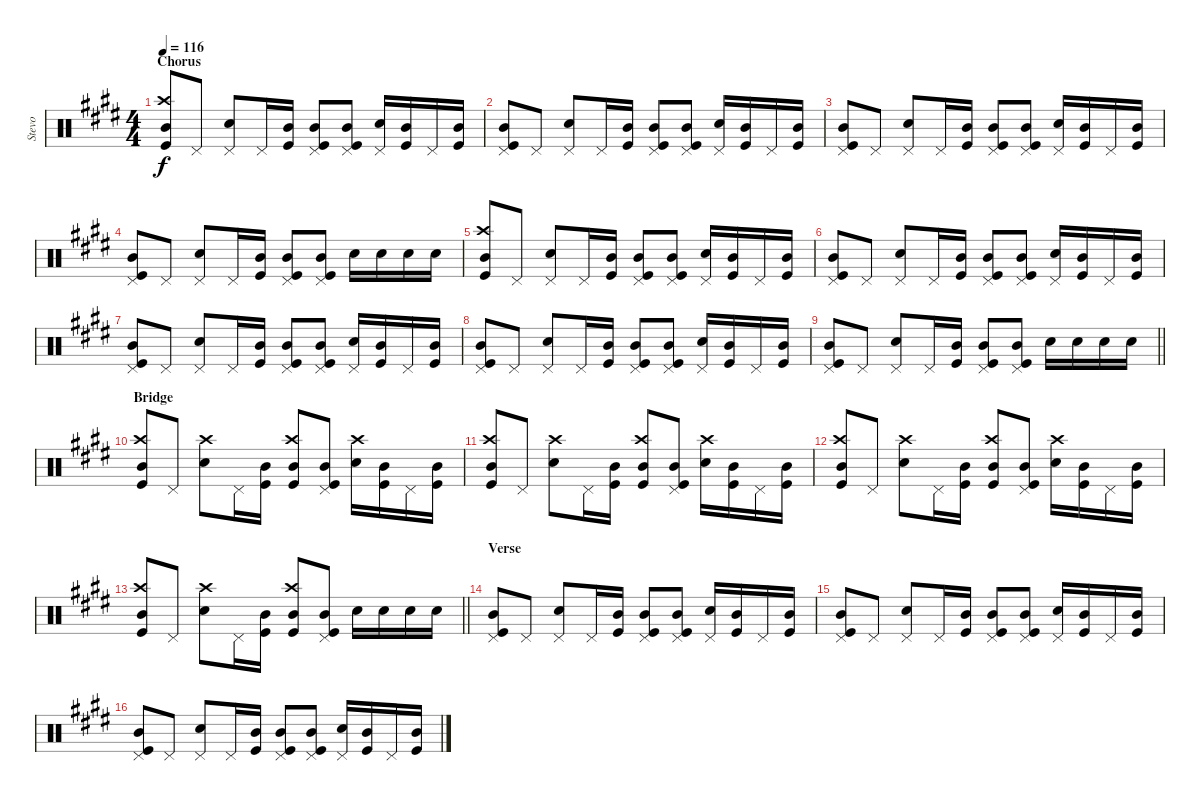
\track ("Stevo" "Stevo") {instrument percussion}
\staff {score}
\articulation defaults
\ts (4 4)
\section ("" "Chorus")
\tempo 116
\clef neutral
\ks e
("Kick (hit)" "Crash high (hit)" "Mid Tom (hit)").8{dy f} "Pedal Hi-Hat (hit)".8 ("Electric Snare (hit)" "Pedal Hi-Hat (hit)").8 "Pedal Hi-Hat (hit)".16 ("Kick (hit)" "Mid Tom (hit)").16 ("Kick (hit)" "Pedal Hi-Hat (hit)" "Mid Tom (hit)").8 ("Kick (hit)" "Pedal Hi-Hat (hit)" "Mid Tom (hit)").8 ("Electric Snare (hit)" "Pedal Hi-Hat (hit)").16 ("Kick (hit)" "Mid Tom (hit)").16 "Pedal Hi-Hat (hit)".16 ("Kick (hit)" "Mid Tom (hit)").16 |
("Kick (hit)" "Pedal Hi-Hat (hit)" "Mid Tom (hit)").8 "Pedal Hi-Hat (hit)".8 ("Electric Snare (hit)" "Pedal Hi-Hat (hit)").8 "Pedal Hi-Hat (hit)".16 ("Kick (hit)" "Mid Tom (hit)").16 ("Kick (hit)" "Pedal Hi-Hat (hit)" "Mid Tom (hit)").8 ("Kick (hit)" "Pedal Hi-Hat (hit)" "Mid Tom (hit)").8 ("Electric Snare (hit)" "Pedal Hi-Hat (hit)").16 ("Kick (hit)" "Mid Tom (hit)").16 "Pedal Hi-Hat (hit)".16 ("Kick (hit)" "Mid Tom (hit)").16 |
("Kick (hit)" "Pedal Hi-Hat (hit)" "Mid Tom (hit)").8 "Pedal Hi-Hat (hit)".8 ("Electric Snare (hit)" "Pedal Hi-Hat (hit)").8 "Pedal Hi-Hat (hit)".16 ("Kick (hit)" "Mid Tom (hit)").16 ("Kick (hit)" "Pedal Hi-Hat (hit)" "Mid Tom (hit)").8 ("Kick (hit)" "Pedal Hi-Hat (hit)" "Mid Tom (hit)").8 ("Electric Snare (hit)" "Pedal Hi-Hat (hit)").16 ("Kick (hit)" "Mid Tom (hit)").16 "Pedal Hi-Hat (hit)".16 ("Kick (hit)" "Mid Tom (hit)").16 |
("Kick (hit)" "Pedal Hi-Hat (hit)" "Mid Tom (hit)").8 "Pedal Hi-Hat (hit)".8 ("Electric Snare (hit)" "Pedal Hi-Hat (hit)").8 "Pedal Hi-Hat (hit)".16 ("Kick (hit)" "Mid Tom (hit)").16 ("Kick (hit)" "Pedal Hi-Hat (hit)" "Mid Tom (hit)").8 ("Kick (hit)" "Pedal Hi-Hat (hit)" "Mid Tom (hit)").8 "Electric Snare (hit)".16 "Electric Snare (hit)".16 "Electric Snare (hit)".16 "Electric Snare (hit)".16 |
("Kick (hit)" "Crash high (hit)" "Mid Tom (hit)").8 "Pedal Hi-Hat (hit)".8 ("Electric Snare (hit)" "Pedal Hi-Hat (hit)").8 "Pedal Hi-Hat (hit)".16 ("Kick (hit)" "Mid Tom (hit)").16 ("Kick (hit)" "Pedal Hi-Hat (hit)" "Mid Tom (hit)").8 ("Kick (hit)" "Pedal Hi-Hat (hit)" "Mid Tom (hit)").8 ("Electric Snare (hit)" "Pedal Hi-Hat (hit)").16 ("Kick (hit)" "Mid Tom (hit)").16 "Pedal Hi-Hat (hit)".16 ("Kick (hit)" "Mid Tom (hit)").16 |
("Kick (hit)" "Pedal Hi-Hat (hit)" "Mid Tom (hit)").8 "Pedal Hi-Hat (hit)".8 ("Electric Snare (hit)" "Pedal Hi-Hat (hit)").8 "Pedal Hi-Hat (hit)".16 ("Kick (hit)" "Mid Tom (hit)").16 ("Kick (hit)" "Pedal Hi-Hat (hit)" "Mid Tom (hit)").8 ("Kick (hit)" "Pedal Hi-Hat (hit)" "Mid Tom (hit)").8 ("Electric Snare (hit)" "Pedal Hi-Hat (hit)").16 ("Kick (hit)" "Mid Tom (hit)").16 "Pedal Hi-Hat (hit)".16 ("Kick (hit)" "Mid Tom (hit)").16 |
("Kick (hit)" "Pedal Hi-Hat (hit)" "Mid Tom (hit)").8 "Pedal Hi-Hat (hit)".8 ("Electric Snare (hit)" "Pedal Hi-Hat (hit)").8 "Pedal Hi-Hat (hit)".16 ("Kick (hit)" "Mid Tom (hit)").16 ("Kick (hit)" "Pedal Hi-Hat (hit)" "Mid Tom (hit)").8 ("Kick (hit)" "Pedal Hi-Hat (hit)" "Mid Tom (hit)").8 ("Electric Snare (hit)" "Pedal Hi-Hat (hit)").16 ("Kick (hit)" "Mid Tom (hit)").16 "Pedal Hi-Hat (hit)".16 ("Kick (hit)" "Mid Tom (hit)").16 |
("Kick (hit)" "Pedal Hi-Hat (hit)" "Mid Tom (hit)").8 "Pedal Hi-Hat (hit)".8 ("Electric Snare (hit)" "Pedal Hi-Hat (hit)").8 "Pedal Hi-Hat (hit)".16 ("Kick (hit)" "Mid Tom (hit)").16 ("Kick (hit)" "Pedal Hi-Hat (hit)" "Mid Tom (hit)").8 ("Kick (hit)" "Pedal Hi-Hat (hit)" "Mid Tom (hit)").8 ("Electric Snare (hit)" "Pedal Hi-Hat (hit)").16 ("Kick (hit)" "Mid Tom (hit)").16 "Pedal Hi-Hat (hit)".16 ("Kick (hit)" "Mid Tom (hit)").16 |
\barLineRight lightlight
("Kick (hit)" "Pedal Hi-Hat (hit)" "Mid Tom (hit)").8 "Pedal Hi-Hat (hit)".8 ("Electric Snare (hit)" "Pedal Hi-Hat (hit)").8 "Pedal Hi-Hat (hit)".16 ("Kick (hit)" "Mid Tom (hit)").16 ("Kick (hit)" "Pedal Hi-Hat (hit)" "Mid Tom (hit)").8 ("Kick (hit)" "Pedal Hi-Hat (hit)" "Mid Tom (hit)").8 "Electric Snare (hit)".16 "Electric Snare (hit)".16 "Electric Snare (hit)".16 "Electric Snare (hit)".16 |
\section ("" "Bridge")
("Kick (hit)" "Crash high (hit)" "Mid Tom (hit)").8 "Pedal Hi-Hat (hit)".8 ("Electric Snare (hit)" "Crash high (hit)").8 "Pedal Hi-Hat (hit)".16 ("Kick (hit)" "Mid Tom (hit)").16 ("Kick (hit)" "Crash high (hit)" "Mid Tom (hit)").8 ("Kick (hit)" "Pedal Hi-Hat (hit)" "Mid Tom (hit)").8 ("Electric Snare (hit)" "Crash high (hit)").16 ("Kick (hit)" "Mid Tom (hit)").16 "Pedal Hi-Hat (hit)".16 ("Kick (hit)" "Mid Tom (hit)").16 |
("Kick (hit)" "Crash high (hit)" "Mid Tom (hit)").8 "Pedal Hi-Hat (hit)".8 ("Electric Snare (hit)" "Crash high (hit)").8 "Pedal Hi-Hat (hit)".16 ("Kick (hit)" "Mid Tom (hit)").16 ("Kick (hit)" "Crash high (hit)" "Mid Tom (hit)").8 ("Kick (hit)" "Pedal Hi-Hat (hit)" "Mid Tom (hit)").8 ("Electric Snare (hit)" "Crash high (hit)").16 ("Kick (hit)" "Mid Tom (hit)").16 "Pedal Hi-Hat (hit)".16 ("Kick (hit)" "Mid Tom (hit)").16 |
("Kick (hit)" "Crash high (hit)" "Mid Tom (hit)").8 "Pedal Hi-Hat (hit)".8 ("Electric Snare (hit)" "Crash high (hit)").8 "Pedal Hi-Hat (hit)".16 ("Kick (hit)" "Mid Tom (hit)").16 ("Kick (hit)" "Crash high (hit)" "Mid Tom (hit)").8 ("Kick (hit)" "Pedal Hi-Hat (hit)" "Mid Tom (hit)").8 ("Electric Snare (hit)" "Crash high (hit)").16 ("Kick (hit)" "Mid Tom (hit)").16 "Pedal Hi-Hat (hit)".16 ("Kick (hit)" "Mid Tom (hit)").16 |
\barLineRight lightlight
("Kick (hit)" "Crash high (hit)" "Mid Tom (hit)").8 "Pedal Hi-Hat (hit)".8 ("Electric Snare (hit)" "Crash high (hit)").8 "Pedal Hi-Hat (hit)".16 ("Kick (hit)" "Mid Tom (hit)").16 ("Kick (hit)" "Crash high (hit)" "Mid Tom (hit)").8 ("Kick (hit)" "Pedal Hi-Hat (hit)" "Mid Tom (hit)").8 "Electric Snare (hit)".16 "Electric Snare (hit)".16 "Electric Snare (hit)".16 "Electric Snare (hit)".16 |
\section ("" "Verse")
("Kick (hit)" "Pedal Hi-Hat (hit)" "Mid Tom (hit)").8 "Pedal Hi-Hat (hit)".8 ("Electric Snare (hit)" "Pedal Hi-Hat (hit)").8 "Pedal Hi-Hat (hit)".16 ("Kick (hit)" "Mid Tom (hit)").16 ("Kick (hit)" "Pedal Hi-Hat (hit)" "Mid Tom (hit)").8 ("Kick (hit)" "Pedal Hi-Hat (hit)" "Mid Tom (hit)").8 ("Electric Snare (hit)" "Pedal Hi-Hat (hit)").16 ("Kick (hit)" "Mid Tom (hit)").16 "Pedal Hi-Hat (hit)".16 ("Kick (hit)" "Mid Tom (hit)").16 |
("Kick (hit)" "Pedal Hi-Hat (hit)" "Mid Tom (hit)").8 "Pedal Hi-Hat (hit)".8 ("Electric Snare (hit)" "Pedal Hi-Hat (hit)").8 "Pedal Hi-Hat (hit)".16 ("Kick (hit)" "Mid Tom (hit)").16 ("Kick (hit)" "Pedal Hi-Hat (hit)" "Mid Tom (hit)").8 ("Kick (hit)" "Pedal Hi-Hat (hit)" "Mid Tom (hit)").8 ("Electric Snare (hit)" "Pedal Hi-Hat (hit)").16 ("Kick (hit)" "Mid Tom (hit)").16 "Pedal Hi-Hat (hit)".16 ("Kick (hit)" "Mid Tom (hit)").16 |
("Kick (hit)" "Pedal Hi-Hat (hit)" "Mid Tom (hit)").8 "Pedal Hi-Hat (hit)".8 ("Electric Snare (hit)" "Pedal Hi-Hat (hit)").8 "Pedal Hi-Hat (hit)".16 ("Kick (hit)" "Mid Tom (hit)").16 ("Kick (hit)" "Pedal Hi-Hat (hit)" "Mid Tom (hit)").8 ("Kick (hit)" "Pedal Hi-Hat (hit)" "Mid Tom (hit)").8 ("Electric Snare (hit)" "Pedal Hi-Hat (hit)").16 ("Kick (hit)" "Mid Tom (hit)").16 "Pedal Hi-Hat (hit)".16 ("Kick (hit)" "Mid Tom (hit)").16
